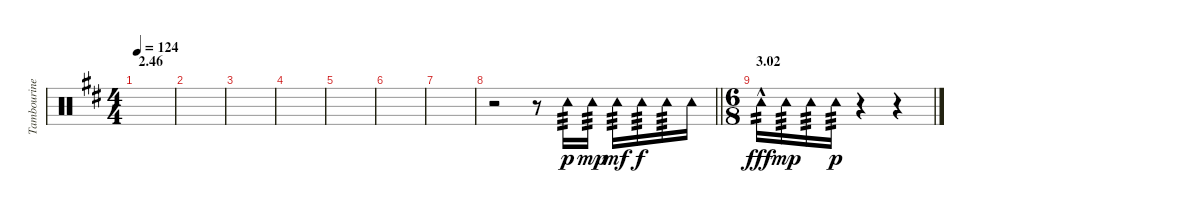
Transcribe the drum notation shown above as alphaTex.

\track ("Tambourine" "Tambourine") {instrument percussion}
\staff {score}
\articulation defaults
\ts (4 4)
\section ("" "2.46")
\tempo 124
\clef neutral
\ks d
|
|
|
|
|
|
|
\barLineRight lightlight
r.2 r.8 "Tambourine (hit)".16{tp 3 dy p} "Tambourine (hit)".16{tp 3 dy mp} "Tambourine (hit)".16{tp 3 dy mf} "Tambourine (hit)".16{tp 3 dy f} "Tambourine (hit)".16{tp 3} "Tambourine (hit)".16 |
\ts (6 8)
\section ("" "3.02")
"Tambourine (hit)"{hac}.16{tp 2 dy fff} "Tambourine (hit)".16{tp 3 dy mp} "Tambourine (hit)".16{tp 3} "Tambourine (hit)".16{tp 3 dy p} r.4 r.4
